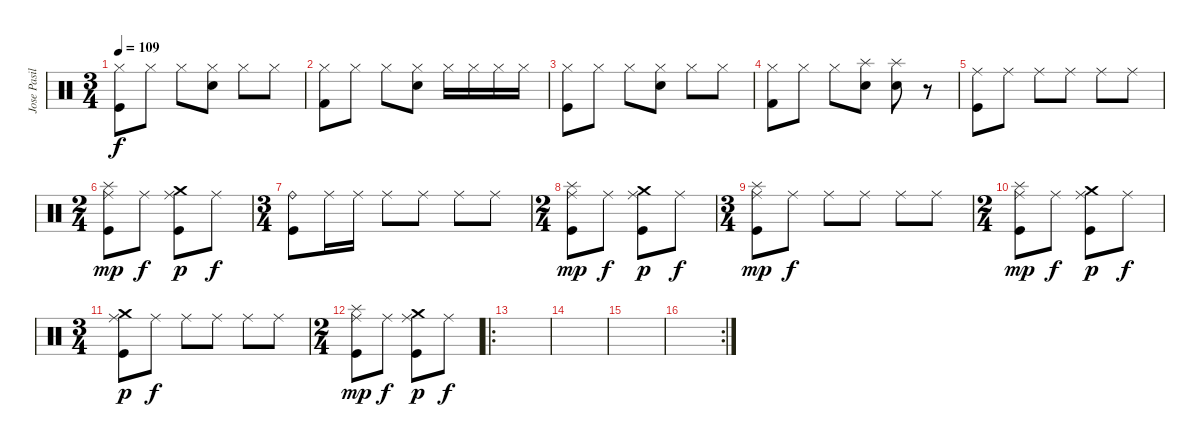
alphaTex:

\track ("Jose Pasillas" "Jose Pasil") {instrument percussion}
\staff {score}
\articulation defaults
\ts (3 4)
\tempo 109
\clef neutral
\ks c
("Hi-Hat (closed)" "Kick (hit)").8{dy f} "Hi-Hat (closed)".8 "Hi-Hat (closed)".8 ("Hi-Hat (closed)" "Electric Snare (hit)").8 "Hi-Hat (closed)".8 "Hi-Hat (closed)".8 |
("Hi-Hat (closed)" "Kick (hit) 2").8 "Hi-Hat (closed)".8 "Hi-Hat (closed)".8 ("Hi-Hat (closed)" "Electric Snare (hit)").8 "Hi-Hat (closed)".16 "Hi-Hat (closed)".16 "Hi-Hat (closed)".16 "Hi-Hat (closed)".16 |
("Hi-Hat (closed)" "Kick (hit)").8 "Hi-Hat (closed)".8 "Hi-Hat (closed)".8 ("Hi-Hat (closed)" "Electric Snare (hit)").8 "Hi-Hat (closed)".8 "Hi-Hat (closed)".8 |
("Hi-Hat (closed)" "Kick (hit) 2").8 "Hi-Hat (closed)".8 "Hi-Hat (closed)".8 ("Splash (hit)" "Electric Snare (hit)").8 ("Splash (hit)" "Electric Snare (hit)").8 r.8 |
("Ride (middle)" "Kick (hit)").8 "Ride (middle)".8 "Ride (middle)".8 "Ride (middle)".8 "Ride (middle)".8 "Ride (middle)".8 |
\ts (2 4)
("Ride (middle)" "Splash (hit)" "Kick (hit)").8{dy mp} "Ride (middle)".8{dy f} ("Ride (middle)" "Crash medium (hit)" "Kick (hit)").8{dy p} "Ride (middle)".8{dy f} |
\ts (3 4)
("Ride (bell)" "Kick (hit)").8 "Ride (middle)".16 "Ride (middle)".16 "Ride (middle)".8 "Ride (middle)".8 "Ride (middle)".8 "Ride (middle)".8 |
\ts (2 4)
("Ride (middle)" "Splash (hit)" "Kick (hit)").8{dy mp} "Ride (middle)".8{dy f} ("Ride (middle)" "Crash medium (hit)" "Kick (hit)").8{dy p} "Ride (middle)".8{dy f} |
\ts (3 4)
("Ride (middle)" "Splash (hit)" "Kick (hit)").8{dy mp} "Ride (middle)".8{dy f} "Ride (middle)".8 "Ride (middle)".8 "Ride (middle)".8 "Ride (middle)".8 |
\ts (2 4)
("Ride (middle)" "Splash (hit)" "Kick (hit)").8{dy mp} "Ride (middle)".8{dy f} ("Ride (middle)" "Crash medium (hit)" "Kick (hit)").8{dy p} "Ride (middle)".8{dy f} |
\ts (3 4)
("Ride (middle)" "Crash medium (hit)" "Kick (hit)").8{dy p} "Ride (middle)".8{dy f} "Ride (middle)".8 "Ride (middle)".8 "Ride (middle)".8 "Ride (middle)".8 |
\ts (2 4)
("Ride (middle)" "Splash (hit)" "Kick (hit)").8{dy mp} "Ride (middle)".8{dy f} ("Ride (middle)" "Crash medium (hit)" "Kick (hit)").8{dy p} "Ride (middle)".8{dy f} |
\ro
|
|
|
\rc 2
